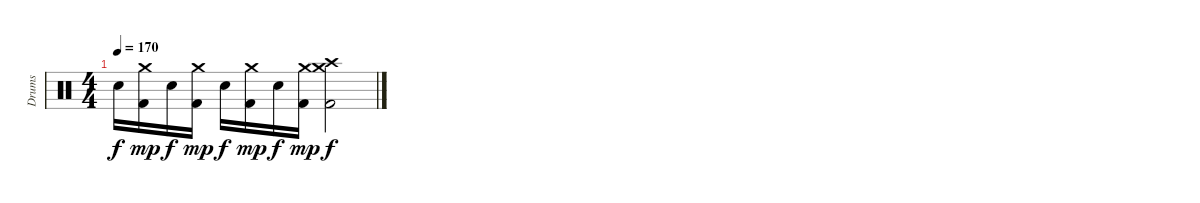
\track ("Drums" "Drums") {instrument percussion}
\staff {score}
\articulation defaults
\ts (4 4)
\tempo 170
\clef neutral
\ks c "Snare (hit) 2".16{dy f}
("Kick (hit) 2" "Crash medium (hit)").16{dy mp} "Snare (hit) 2".16{dy f} ("Kick (hit) 2" "Crash medium (hit)").16{dy mp} "Snare (hit) 2".16{dy f} ("Kick (hit) 2" "Crash medium (hit)").16{dy mp} "Snare (hit) 2".16{dy f} ("Kick (hit) 2" "Crash medium (hit)").16{dy mp} ("Kick (hit) 2" "Crash high (hit)" "Crash medium (hit)").2{dy f}
